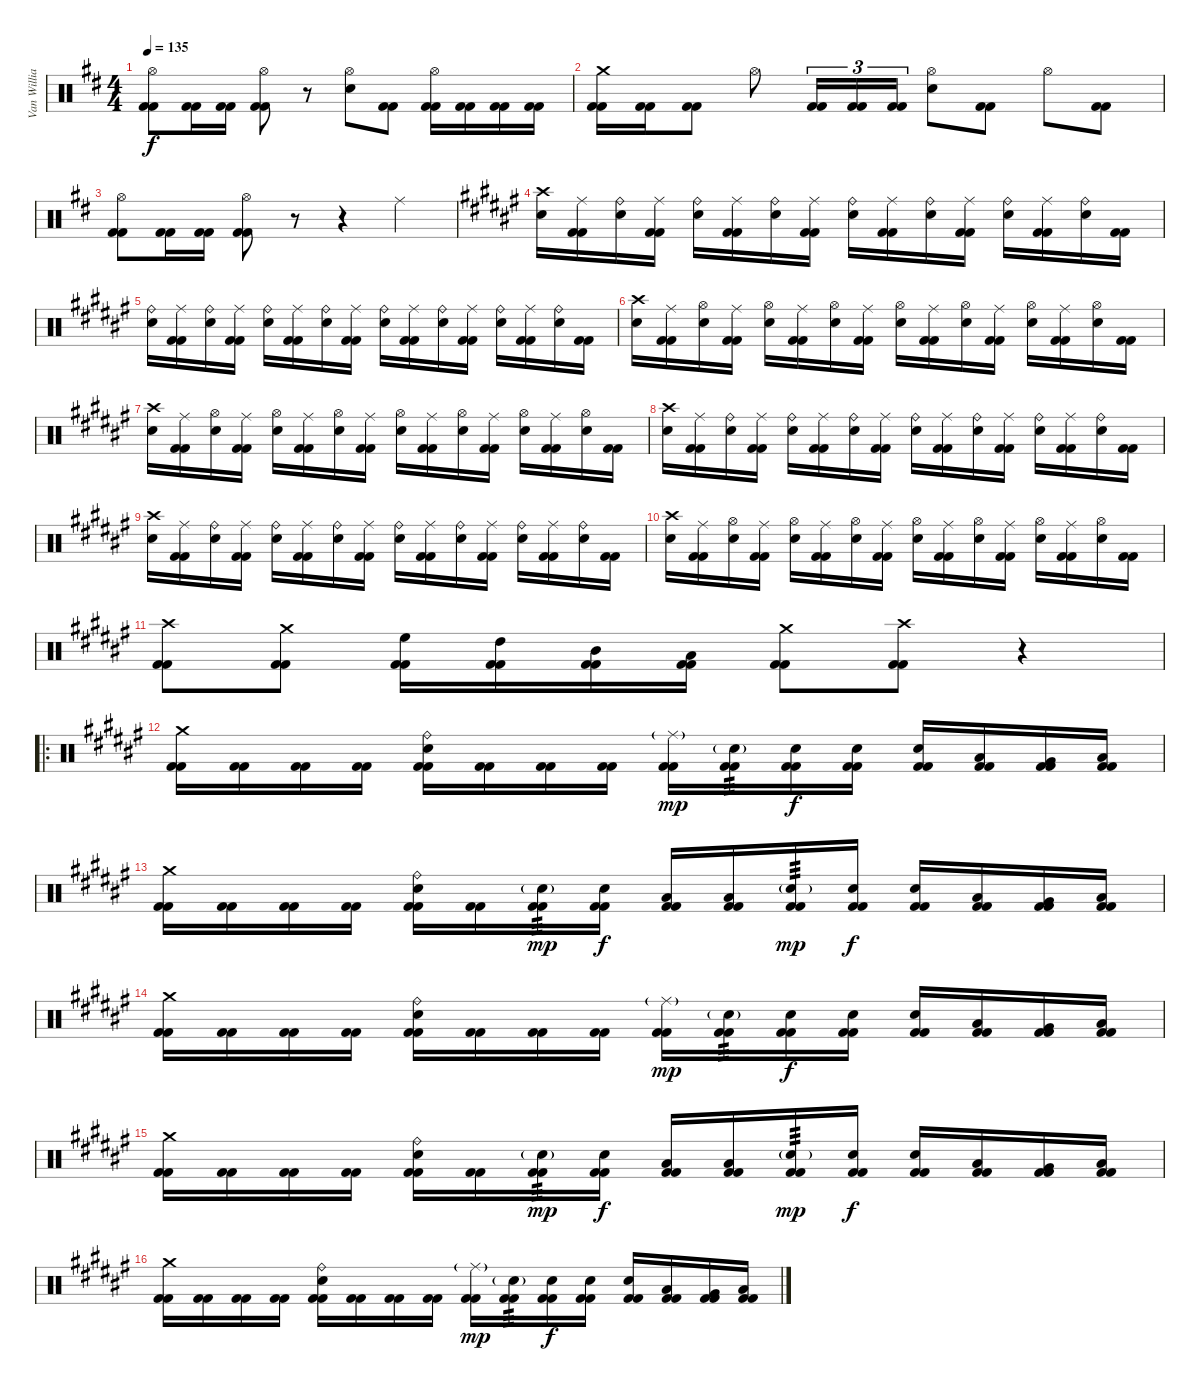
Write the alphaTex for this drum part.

\track ("Van Williams" "Van Willia") {instrument percussion}
\staff {score}
\articulation defaults
\ts (4 4)
\tempo 135
\clef neutral
\ks d
("Hi-Hat (open)" "Kick (hit) 2" "Kick (hit) 2").8{dy f} ("Kick (hit) 2" "Kick (hit) 2").16 ("Kick (hit) 2" "Kick (hit) 2").16 ("Hi-Hat (open)" "Kick (hit) 2" "Kick (hit) 2").8 r.8 ("Hi-Hat (open)" "Electric Snare (hit)").8 ("Kick (hit) 2" "Kick (hit) 2").8 ("Hi-Hat (open)" "Kick (hit) 2" "Kick (hit) 2").16 ("Kick (hit) 2" "Kick (hit) 2").16 ("Kick (hit) 2" "Kick (hit) 2").16 ("Kick (hit) 2" "Kick (hit) 2").16 |
("Crash medium (hit)" "Kick (hit) 2" "Kick (hit) 2").16 ("Kick (hit) 2" "Kick (hit) 2").16 ("Kick (hit) 2" "Kick (hit) 2").8 "Hi-Hat (open)".8 ("Kick (hit) 2" "Kick (hit) 2").16{tu (3 2)} ("Kick (hit) 2" "Kick (hit) 2").16{tu (3 2)} ("Kick (hit) 2" "Kick (hit) 2").16{tu (3 2)} ("Hi-Hat (open)" "Electric Snare (hit)").8 ("Kick (hit) 2" "Kick (hit) 2").8 "Hi-Hat (open)".8 ("Kick (hit) 2" "Kick (hit) 2").8 |
("Hi-Hat (open)" "Kick (hit) 2" "Kick (hit) 2").8 ("Kick (hit) 2" "Kick (hit) 2").16 ("Kick (hit) 2" "Kick (hit) 2").16 ("Hi-Hat (open)" "Kick (hit) 2" "Kick (hit) 2").8 r.8 r.4 "Ride (middle)".4 |
\ks f#
("Crash high (hit)" "Electric Snare (hit)").16 ("Ride (middle)" "Kick (hit) 2" "Kick (hit) 2").16 ("Ride (bell)" "Electric Snare (hit)").16 ("Ride (middle)" "Kick (hit) 2" "Kick (hit) 2").16 ("Ride (bell)" "Electric Snare (hit)").16 ("Ride (middle)" "Kick (hit) 2" "Kick (hit) 2").16 ("Ride (bell)" "Electric Snare (hit)").16 ("Ride (middle)" "Kick (hit) 2" "Kick (hit) 2").16 ("Ride (bell)" "Electric Snare (hit)").16 ("Ride (middle)" "Kick (hit) 2" "Kick (hit) 2").16 ("Ride (bell)" "Electric Snare (hit)").16 ("Ride (middle)" "Kick (hit) 2" "Kick (hit) 2").16 ("Ride (bell)" "Electric Snare (hit)").16 ("Ride (middle)" "Kick (hit) 2" "Kick (hit) 2").16 ("Ride (bell)" "Electric Snare (hit)").16 ("Kick (hit) 2" "Kick (hit) 2").16 |
("Ride (bell)" "Electric Snare (hit)").16 ("Ride (middle)" "Kick (hit) 2" "Kick (hit) 2").16 ("Ride (bell)" "Electric Snare (hit)").16 ("Ride (middle)" "Kick (hit) 2" "Kick (hit) 2").16 ("Ride (bell)" "Electric Snare (hit)").16 ("Ride (middle)" "Kick (hit) 2" "Kick (hit) 2").16 ("Ride (bell)" "Electric Snare (hit)").16 ("Ride (middle)" "Kick (hit) 2" "Kick (hit) 2").16 ("Ride (bell)" "Electric Snare (hit)").16 ("Ride (middle)" "Kick (hit) 2" "Kick (hit) 2").16 ("Ride (bell)" "Electric Snare (hit)").16 ("Ride (middle)" "Kick (hit) 2" "Kick (hit) 2").16 ("Ride (bell)" "Electric Snare (hit)").16 ("Ride (middle)" "Kick (hit) 2" "Kick (hit) 2").16 ("Ride (bell)" "Electric Snare (hit)").16 ("Kick (hit) 2" "Kick (hit) 2").16 |
("Crash high (hit)" "Electric Snare (hit)").16 ("Ride (middle)" "Kick (hit) 2" "Kick (hit) 2").16 ("Hi-Hat (open)" "Electric Snare (hit)").16 ("Ride (middle)" "Kick (hit) 2" "Kick (hit) 2").16 ("Hi-Hat (open)" "Electric Snare (hit)").16 ("Ride (middle)" "Kick (hit) 2" "Kick (hit) 2").16 ("Hi-Hat (open)" "Electric Snare (hit)").16 ("Ride (middle)" "Kick (hit) 2" "Kick (hit) 2").16 ("Hi-Hat (open)" "Electric Snare (hit)").16 ("Ride (middle)" "Kick (hit) 2" "Kick (hit) 2").16 ("Hi-Hat (open)" "Electric Snare (hit)").16 ("Ride (middle)" "Kick (hit) 2" "Kick (hit) 2").16 ("Hi-Hat (open)" "Electric Snare (hit)").16 ("Ride (middle)" "Kick (hit) 2" "Kick (hit) 2").16 ("Hi-Hat (open)" "Electric Snare (hit)").16 ("Kick (hit) 2" "Kick (hit) 2").16 |
("Crash high (hit)" "Electric Snare (hit)").16 ("Ride (middle)" "Kick (hit) 2" "Kick (hit) 2").16 ("Hi-Hat (open)" "Electric Snare (hit)").16 ("Ride (middle)" "Kick (hit) 2" "Kick (hit) 2").16 ("Hi-Hat (open)" "Electric Snare (hit)").16 ("Ride (middle)" "Kick (hit) 2" "Kick (hit) 2").16 ("Hi-Hat (open)" "Electric Snare (hit)").16 ("Ride (middle)" "Kick (hit) 2" "Kick (hit) 2").16 ("Hi-Hat (open)" "Electric Snare (hit)").16 ("Ride (middle)" "Kick (hit) 2" "Kick (hit) 2").16 ("Hi-Hat (open)" "Electric Snare (hit)").16 ("Ride (middle)" "Kick (hit) 2" "Kick (hit) 2").16 ("Hi-Hat (open)" "Electric Snare (hit)").16 ("Ride (middle)" "Kick (hit) 2" "Kick (hit) 2").16 ("Hi-Hat (open)" "Electric Snare (hit)").16 ("Kick (hit) 2" "Kick (hit) 2").16 |
("Crash high (hit)" "Electric Snare (hit)").16 ("Ride (middle)" "Kick (hit) 2" "Kick (hit) 2").16 ("Ride (bell)" "Electric Snare (hit)").16 ("Ride (middle)" "Kick (hit) 2" "Kick (hit) 2").16 ("Ride (bell)" "Electric Snare (hit)").16 ("Ride (middle)" "Kick (hit) 2" "Kick (hit) 2").16 ("Ride (bell)" "Electric Snare (hit)").16 ("Ride (middle)" "Kick (hit) 2" "Kick (hit) 2").16 ("Ride (bell)" "Electric Snare (hit)").16 ("Ride (middle)" "Kick (hit) 2" "Kick (hit) 2").16 ("Ride (bell)" "Electric Snare (hit)").16 ("Ride (middle)" "Kick (hit) 2" "Kick (hit) 2").16 ("Ride (bell)" "Electric Snare (hit)").16 ("Ride (middle)" "Kick (hit) 2" "Kick (hit) 2").16 ("Ride (bell)" "Electric Snare (hit)").16 ("Kick (hit) 2" "Kick (hit) 2").16 |
("Crash high (hit)" "Electric Snare (hit)").16 ("Ride (middle)" "Kick (hit) 2" "Kick (hit) 2").16 ("Ride (bell)" "Electric Snare (hit)").16 ("Ride (middle)" "Kick (hit) 2" "Kick (hit) 2").16 ("Ride (bell)" "Electric Snare (hit)").16 ("Ride (middle)" "Kick (hit) 2" "Kick (hit) 2").16 ("Ride (bell)" "Electric Snare (hit)").16 ("Ride (middle)" "Kick (hit) 2" "Kick (hit) 2").16 ("Ride (bell)" "Electric Snare (hit)").16 ("Ride (middle)" "Kick (hit) 2" "Kick (hit) 2").16 ("Ride (bell)" "Electric Snare (hit)").16 ("Ride (middle)" "Kick (hit) 2" "Kick (hit) 2").16 ("Ride (bell)" "Electric Snare (hit)").16 ("Ride (middle)" "Kick (hit) 2" "Kick (hit) 2").16 ("Ride (bell)" "Electric Snare (hit)").16 ("Kick (hit) 2" "Kick (hit) 2").16 |
("Crash high (hit)" "Electric Snare (hit)").16 ("Ride (middle)" "Kick (hit) 2" "Kick (hit) 2").16 ("Hi-Hat (open)" "Electric Snare (hit)").16 ("Ride (middle)" "Kick (hit) 2" "Kick (hit) 2").16 ("Hi-Hat (open)" "Electric Snare (hit)").16 ("Ride (middle)" "Kick (hit) 2" "Kick (hit) 2").16 ("Hi-Hat (open)" "Electric Snare (hit)").16 ("Ride (middle)" "Kick (hit) 2" "Kick (hit) 2").16 ("Hi-Hat (open)" "Electric Snare (hit)").16 ("Ride (middle)" "Kick (hit) 2" "Kick (hit) 2").16 ("Hi-Hat (open)" "Electric Snare (hit)").16 ("Ride (middle)" "Kick (hit) 2" "Kick (hit) 2").16 ("Hi-Hat (open)" "Electric Snare (hit)").16 ("Ride (middle)" "Kick (hit) 2" "Kick (hit) 2").16 ("Hi-Hat (open)" "Electric Snare (hit)").16 ("Kick (hit) 2" "Kick (hit) 2").16 |
("Crash high (hit)" "Kick (hit) 2" "Kick (hit) 2").8 ("Crash medium (hit)" "Kick (hit) 2" "Kick (hit) 2").8 ("High Floor Tom (hit)" "Kick (hit) 2" "Kick (hit) 2").16 ("High Tom (hit)" "Kick (hit) 2" "Kick (hit) 2").16 ("Mid Tom (hit)" "Kick (hit) 2" "Kick (hit) 2").16 ("Low Tom (hit)" "Kick (hit) 2" "Kick (hit) 2").16 ("Crash medium (hit)" "Kick (hit) 2" "Kick (hit) 2").8 ("Crash high (hit)" "Kick (hit) 2" "Kick (hit) 2").8 r.4 |
\ro
("Crash medium (hit)" "Kick (hit) 2" "Kick (hit) 2").16 ("Kick (hit) 2" "Kick (hit) 2").16 ("Kick (hit) 2" "Kick (hit) 2").16 ("Kick (hit) 2" "Kick (hit) 2").16 ("Ride (bell)" "Electric Snare (hit)" "Kick (hit) 2" "Kick (hit) 2").16 ("Kick (hit) 2" "Kick (hit) 2").16 ("Kick (hit) 2" "Kick (hit) 2").16 ("Kick (hit) 2" "Kick (hit) 2").16 ("Ride (middle)"{g} "Kick (hit) 2" "Kick (hit) 2").16{dy mp} ("Electric Snare (hit)"{g} "Kick (hit) 2" "Kick (hit) 2").16{tp 3} ("Electric Snare (hit)" "Kick (hit) 2" "Kick (hit) 2").16{dy f} ("Electric Snare (hit)" "Kick (hit) 2" "Kick (hit) 2").16 ("Electric Snare (hit)" "Kick (hit) 2" "Kick (hit) 2").16 ("Low Tom (hit)" "Kick (hit) 2" "Kick (hit) 2").16 ("Very Low Tom (hit)" "Kick (hit) 2" "Kick (hit) 2").16 ("Low Floor Tom (hit)" "Kick (hit) 2" "Kick (hit) 2").16 |
("Crash medium (hit)" "Kick (hit) 2" "Kick (hit) 2").16 ("Kick (hit) 2" "Kick (hit) 2").16 ("Kick (hit) 2" "Kick (hit) 2").16 ("Kick (hit) 2" "Kick (hit) 2").16 ("Ride (bell)" "Electric Snare (hit)" "Kick (hit) 2" "Kick (hit) 2").16 ("Kick (hit) 2" "Kick (hit) 2").16 ("Electric Snare (hit)"{g} "Kick (hit) 2" "Kick (hit) 2").16{tp 3 dy mp} ("Electric Snare (hit)" "Kick (hit) 2" "Kick (hit) 2").16{dy f} ("Low Tom (hit)" "Kick (hit) 2" "Kick (hit) 2").16 ("Low Tom (hit)" "Kick (hit) 2" "Kick (hit) 2").16 ("Electric Snare (hit)"{g} "Kick (hit) 2" "Kick (hit) 2").16{tp 3 dy mp} ("Electric Snare (hit)" "Kick (hit) 2" "Kick (hit) 2").16{dy f} ("Electric Snare (hit)" "Kick (hit) 2" "Kick (hit) 2").16 ("Low Tom (hit)" "Kick (hit) 2" "Kick (hit) 2").16 ("Very Low Tom (hit)" "Kick (hit) 2" "Kick (hit) 2").16 ("Low Floor Tom (hit)" "Kick (hit) 2" "Kick (hit) 2").16 |
("Crash medium (hit)" "Kick (hit) 2" "Kick (hit) 2").16 ("Kick (hit) 2" "Kick (hit) 2").16 ("Kick (hit) 2" "Kick (hit) 2").16 ("Kick (hit) 2" "Kick (hit) 2").16 ("Ride (bell)" "Electric Snare (hit)" "Kick (hit) 2" "Kick (hit) 2").16 ("Kick (hit) 2" "Kick (hit) 2").16 ("Kick (hit) 2" "Kick (hit) 2").16 ("Kick (hit) 2" "Kick (hit) 2").16 ("Ride (middle)"{g} "Kick (hit) 2" "Kick (hit) 2").16{dy mp} ("Electric Snare (hit)"{g} "Kick (hit) 2" "Kick (hit) 2").16{tp 3} ("Electric Snare (hit)" "Kick (hit) 2" "Kick (hit) 2").16{dy f} ("Electric Snare (hit)" "Kick (hit) 2" "Kick (hit) 2").16 ("Electric Snare (hit)" "Kick (hit) 2" "Kick (hit) 2").16 ("Low Tom (hit)" "Kick (hit) 2" "Kick (hit) 2").16 ("Very Low Tom (hit)" "Kick (hit) 2" "Kick (hit) 2").16 ("Low Floor Tom (hit)" "Kick (hit) 2" "Kick (hit) 2").16 |
("Crash medium (hit)" "Kick (hit) 2" "Kick (hit) 2").16 ("Kick (hit) 2" "Kick (hit) 2").16 ("Kick (hit) 2" "Kick (hit) 2").16 ("Kick (hit) 2" "Kick (hit) 2").16 ("Ride (bell)" "Electric Snare (hit)" "Kick (hit) 2" "Kick (hit) 2").16 ("Kick (hit) 2" "Kick (hit) 2").16 ("Electric Snare (hit)"{g} "Kick (hit) 2" "Kick (hit) 2").16{tp 3 dy mp} ("Electric Snare (hit)" "Kick (hit) 2" "Kick (hit) 2").16{dy f} ("Low Tom (hit)" "Kick (hit) 2" "Kick (hit) 2").16 ("Low Tom (hit)" "Kick (hit) 2" "Kick (hit) 2").16 ("Electric Snare (hit)"{g} "Kick (hit) 2" "Kick (hit) 2").16{tp 3 dy mp} ("Electric Snare (hit)" "Kick (hit) 2" "Kick (hit) 2").16{dy f} ("Electric Snare (hit)" "Kick (hit) 2" "Kick (hit) 2").16 ("Low Tom (hit)" "Kick (hit) 2" "Kick (hit) 2").16 ("Very Low Tom (hit)" "Kick (hit) 2" "Kick (hit) 2").16 ("Low Floor Tom (hit)" "Kick (hit) 2" "Kick (hit) 2").16 |
("Crash medium (hit)" "Kick (hit) 2" "Kick (hit) 2").16 ("Kick (hit) 2" "Kick (hit) 2").16 ("Kick (hit) 2" "Kick (hit) 2").16 ("Kick (hit) 2" "Kick (hit) 2").16 ("Ride (bell)" "Electric Snare (hit)" "Kick (hit) 2" "Kick (hit) 2").16 ("Kick (hit) 2" "Kick (hit) 2").16 ("Kick (hit) 2" "Kick (hit) 2").16 ("Kick (hit) 2" "Kick (hit) 2").16 ("Ride (middle)"{g} "Kick (hit) 2" "Kick (hit) 2").16{dy mp} ("Electric Snare (hit)"{g} "Kick (hit) 2" "Kick (hit) 2").16{tp 3} ("Electric Snare (hit)" "Kick (hit) 2" "Kick (hit) 2").16{dy f} ("Electric Snare (hit)" "Kick (hit) 2" "Kick (hit) 2").16 ("Electric Snare (hit)" "Kick (hit) 2" "Kick (hit) 2").16 ("Low Tom (hit)" "Kick (hit) 2" "Kick (hit) 2").16 ("Very Low Tom (hit)" "Kick (hit) 2" "Kick (hit) 2").16 ("Low Floor Tom (hit)" "Kick (hit) 2" "Kick (hit) 2").16
